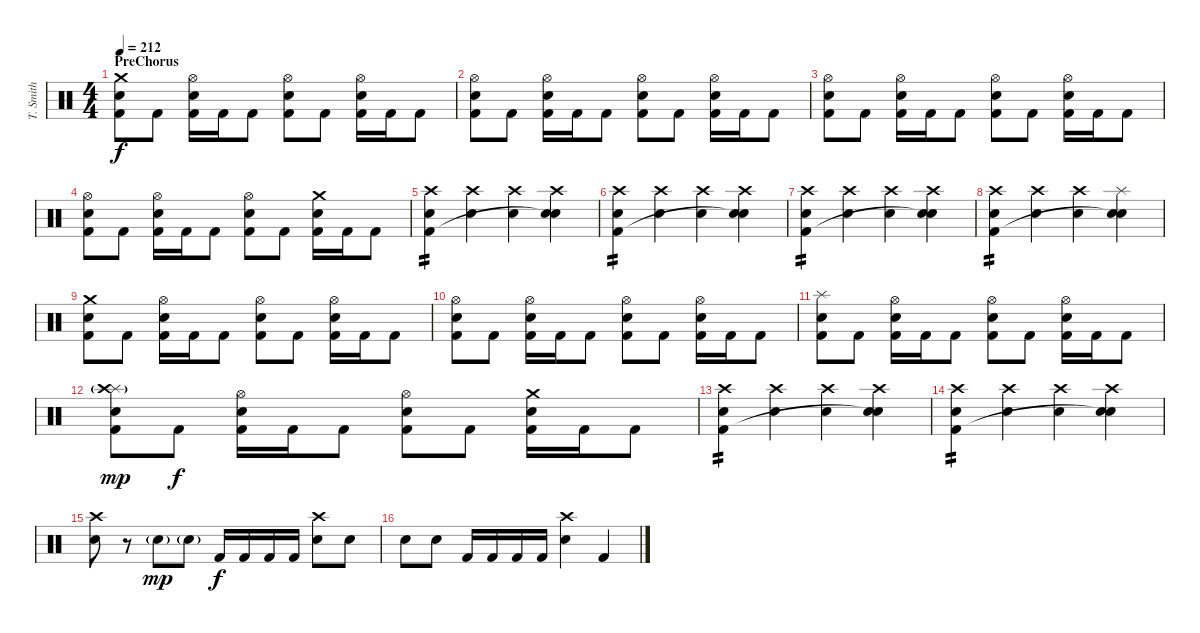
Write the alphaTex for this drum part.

\track ("T. Smith" "T. Smith") {instrument percussion}
\staff {score}
\articulation defaults
\ts (4 4)
\section ("" "PreChorus")
\tempo 212
\clef neutral
\ks c
("Crash medium (hit)" "Electric Snare (hit)" "Kick (hit) 2").8{dy f} "Kick (hit) 2".8 ("Hi-Hat (open)" "Electric Snare (hit)" "Kick (hit) 2").16 "Kick (hit) 2".16 "Kick (hit) 2".8 ("Hi-Hat (open)" "Electric Snare (hit)" "Kick (hit) 2").8 "Kick (hit) 2".8 ("Hi-Hat (open)" "Electric Snare (hit)" "Kick (hit) 2").16 "Kick (hit) 2".16 "Kick (hit) 2".8 |
("Hi-Hat (open)" "Electric Snare (hit)" "Kick (hit) 2").8 "Kick (hit) 2".8 ("Hi-Hat (open)" "Electric Snare (hit)" "Kick (hit) 2").16 "Kick (hit) 2".16 "Kick (hit) 2".8 ("Hi-Hat (open)" "Electric Snare (hit)" "Kick (hit) 2").8 "Kick (hit) 2".8 ("Hi-Hat (open)" "Electric Snare (hit)" "Kick (hit) 2").16 "Kick (hit) 2".16 "Kick (hit) 2".8 |
("Hi-Hat (open)" "Electric Snare (hit)" "Kick (hit) 2").8 "Kick (hit) 2".8 ("Hi-Hat (open)" "Electric Snare (hit)" "Kick (hit) 2").16 "Kick (hit) 2".16 "Kick (hit) 2".8 ("Hi-Hat (open)" "Electric Snare (hit)" "Kick (hit) 2").8 "Kick (hit) 2".8 ("Hi-Hat (open)" "Electric Snare (hit)" "Kick (hit) 2").16 "Kick (hit) 2".16 "Kick (hit) 2".8 |
("Hi-Hat (open)" "Electric Snare (hit)" "Kick (hit) 2").8 "Kick (hit) 2".8 ("Hi-Hat (open)" "Electric Snare (hit)" "Kick (hit) 2").16 "Kick (hit) 2".16 "Kick (hit) 2".8 ("Hi-Hat (open)" "Electric Snare (hit)" "Kick (hit) 2").8 "Kick (hit) 2".8 ("Crash medium (hit)" "Electric Snare (hit)" "Kick (hit) 2").16 "Kick (hit) 2".16 "Kick (hit) 2".8 |
("Crash high (hit)" "Electric Snare (hit)" "Kick (hit) 2").4{tp 2} ("Crash high (hit)" "Electric Snare (hit)").4 ("Crash high (hit)" "Electric Snare (hit)").4 ("Crash high (hit)" "Electric Snare (hit)" "Snare (hit)"{t}).4 |
("Crash high (hit)" "Electric Snare (hit)" "Kick (hit) 2").4{tp 2} ("Crash high (hit)" "Electric Snare (hit)").4 ("Crash high (hit)" "Electric Snare (hit)").4 ("Crash high (hit)" "Electric Snare (hit)" "Snare (hit)"{t}).4 |
("Crash high (hit)" "Electric Snare (hit)" "Kick (hit) 2").4{tp 2} ("Crash high (hit)" "Electric Snare (hit)").4 ("Crash high (hit)" "Electric Snare (hit)").4 ("Crash high (hit)" "Electric Snare (hit)" "Snare (hit)"{t}).4 |
("Crash high (hit)" "Electric Snare (hit)" "Kick (hit) 2").4{tp 2} ("Crash high (hit)" "Electric Snare (hit)").4 ("Crash high (hit)" "Electric Snare (hit)").4 ("Splash (hit)" "Electric Snare (hit)" "Snare (hit)"{t}).4 |
("Crash medium (hit)" "Electric Snare (hit)" "Kick (hit) 2").8 "Kick (hit) 2".8 ("Hi-Hat (open)" "Electric Snare (hit)" "Kick (hit) 2").16 "Kick (hit) 2".16 "Kick (hit) 2".8 ("Hi-Hat (open)" "Electric Snare (hit)" "Kick (hit) 2").8 "Kick (hit) 2".8 ("Hi-Hat (open)" "Electric Snare (hit)" "Kick (hit) 2").16 "Kick (hit) 2".16 "Kick (hit) 2".8 |
("Hi-Hat (open)" "Electric Snare (hit)" "Kick (hit) 2").8 "Kick (hit) 2".8 ("Hi-Hat (open)" "Electric Snare (hit)" "Kick (hit) 2").16 "Kick (hit) 2".16 "Kick (hit) 2".8 ("Hi-Hat (open)" "Electric Snare (hit)" "Kick (hit) 2").8 "Kick (hit) 2".8 ("Hi-Hat (open)" "Electric Snare (hit)" "Kick (hit) 2").16 "Kick (hit) 2".16 "Kick (hit) 2".8 |
("Splash (hit)" "Electric Snare (hit)" "Kick (hit) 2").8 "Kick (hit) 2".8 ("Hi-Hat (open)" "Electric Snare (hit)" "Kick (hit) 2").16 "Kick (hit) 2".16 "Kick (hit) 2".8 ("Hi-Hat (open)" "Electric Snare (hit)" "Kick (hit) 2").8 "Kick (hit) 2".8 ("Hi-Hat (open)" "Electric Snare (hit)" "Kick (hit) 2").16 "Kick (hit) 2".16 "Kick (hit) 2".8 |
("Splash (hit)" "Crash high (hit)"{g} "Electric Snare (hit)" "Kick (hit) 2").8{dy mp} "Kick (hit) 2".8{dy f} ("Hi-Hat (open)" "Electric Snare (hit)" "Kick (hit) 2").16 "Kick (hit) 2".16 "Kick (hit) 2".8 ("Hi-Hat (open)" "Electric Snare (hit)" "Kick (hit) 2").8 "Kick (hit) 2".8 ("Crash medium (hit)" "Electric Snare (hit)" "Kick (hit) 2").16 "Kick (hit) 2".16 "Kick (hit) 2".8 |
("Crash high (hit)" "Electric Snare (hit)" "Kick (hit) 2").4{tp 2} ("Crash high (hit)" "Electric Snare (hit)").4 ("Crash high (hit)" "Electric Snare (hit)").4 ("Crash high (hit)" "Electric Snare (hit)" "Snare (hit)"{t}).4 |
("Crash high (hit)" "Electric Snare (hit)" "Kick (hit) 2").4{tp 2} ("Crash high (hit)" "Electric Snare (hit)").4 ("Crash high (hit)" "Electric Snare (hit)").4 ("Crash high (hit)" "Electric Snare (hit)" "Snare (hit)"{t}).4 |
("Crash high (hit)" "Electric Snare (hit)").8 r.8 "Electric Snare (hit)"{g}.8{dy mp} "Electric Snare (hit)"{g}.8 "Kick (hit) 2".16{dy f} "Kick (hit) 2".16 "Kick (hit) 2".16 "Kick (hit) 2".16 ("Crash high (hit)" "Electric Snare (hit)").8 "Electric Snare (hit)".8 |
"Electric Snare (hit)".8 "Electric Snare (hit)".8 "Kick (hit) 2".16 "Kick (hit) 2".16 "Kick (hit) 2".16 "Kick (hit) 2".16 ("Crash high (hit)" "Electric Snare (hit)").4 "Kick (hit) 2".4
